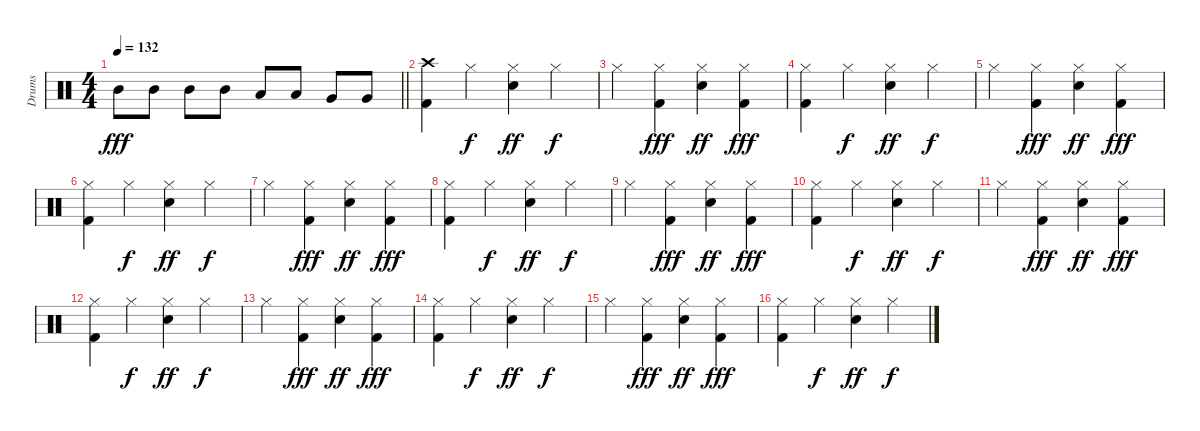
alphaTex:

\track ("Drums" "Drums") {instrument percussion}
\staff {score}
\articulation defaults
\ts (4 4)
\tempo 132
\clef neutral
\barLineRight lightlight
\ks c "Mid Tom (hit)".8{dy fff} "Mid Tom (hit)".8 "Mid Tom (hit)".8 "Mid Tom (hit)".8 "Low Tom (hit)".8 "Low Tom (hit)".8 "Very Low Tom (hit)".8 "Very Low Tom (hit)".8
|
("Crash high (hit)" "Kick (hit) 2").4 "Hi-Hat (closed)".4{dy f} ("Hi-Hat (closed)" "Electric Snare (hit)").4{dy ff} "Hi-Hat (closed)".4{dy f} |
"Hi-Hat (closed)".4 ("Hi-Hat (closed)" "Kick (hit) 2").4{dy fff} ("Hi-Hat (closed)" "Electric Snare (hit)").4{dy ff} ("Hi-Hat (closed)" "Kick (hit) 2").4{dy fff} |
("Hi-Hat (closed)" "Kick (hit) 2").4 "Hi-Hat (closed)".4{dy f} ("Hi-Hat (closed)" "Electric Snare (hit)").4{dy ff} "Hi-Hat (closed)".4{dy f} |
"Hi-Hat (closed)".4 ("Hi-Hat (closed)" "Kick (hit) 2").4{dy fff} ("Hi-Hat (closed)" "Electric Snare (hit)").4{dy ff} ("Hi-Hat (closed)" "Kick (hit) 2").4{dy fff} |
("Hi-Hat (closed)" "Kick (hit) 2").4 "Hi-Hat (closed)".4{dy f} ("Hi-Hat (closed)" "Electric Snare (hit)").4{dy ff} "Hi-Hat (closed)".4{dy f} |
"Hi-Hat (closed)".4 ("Hi-Hat (closed)" "Kick (hit) 2").4{dy fff} ("Hi-Hat (closed)" "Electric Snare (hit)").4{dy ff} ("Hi-Hat (closed)" "Kick (hit) 2").4{dy fff} |
("Hi-Hat (closed)" "Kick (hit) 2").4 "Hi-Hat (closed)".4{dy f} ("Hi-Hat (closed)" "Electric Snare (hit)").4{dy ff} "Hi-Hat (closed)".4{dy f} |
"Hi-Hat (closed)".4 ("Hi-Hat (closed)" "Kick (hit) 2").4{dy fff} ("Hi-Hat (closed)" "Electric Snare (hit)").4{dy ff} ("Hi-Hat (closed)" "Kick (hit) 2").4{dy fff} |
("Hi-Hat (closed)" "Kick (hit) 2").4 "Hi-Hat (closed)".4{dy f} ("Hi-Hat (closed)" "Electric Snare (hit)").4{dy ff} "Hi-Hat (closed)".4{dy f} |
"Hi-Hat (closed)".4 ("Hi-Hat (closed)" "Kick (hit) 2").4{dy fff} ("Hi-Hat (closed)" "Electric Snare (hit)").4{dy ff} ("Hi-Hat (closed)" "Kick (hit) 2").4{dy fff} |
("Hi-Hat (closed)" "Kick (hit) 2").4 "Hi-Hat (closed)".4{dy f} ("Hi-Hat (closed)" "Electric Snare (hit)").4{dy ff} "Hi-Hat (closed)".4{dy f} |
"Hi-Hat (closed)".4 ("Hi-Hat (closed)" "Kick (hit) 2").4{dy fff} ("Hi-Hat (closed)" "Electric Snare (hit)").4{dy ff} ("Hi-Hat (closed)" "Kick (hit) 2").4{dy fff} |
("Hi-Hat (closed)" "Kick (hit) 2").4 "Hi-Hat (closed)".4{dy f} ("Hi-Hat (closed)" "Electric Snare (hit)").4{dy ff} "Hi-Hat (closed)".4{dy f} |
"Hi-Hat (closed)".4 ("Hi-Hat (closed)" "Kick (hit) 2").4{dy fff} ("Hi-Hat (closed)" "Electric Snare (hit)").4{dy ff} ("Hi-Hat (closed)" "Kick (hit) 2").4{dy fff} |
("Hi-Hat (closed)" "Kick (hit) 2").4 "Hi-Hat (closed)".4{dy f} ("Hi-Hat (closed)" "Electric Snare (hit)").4{dy ff} "Hi-Hat (closed)".4{dy f}
